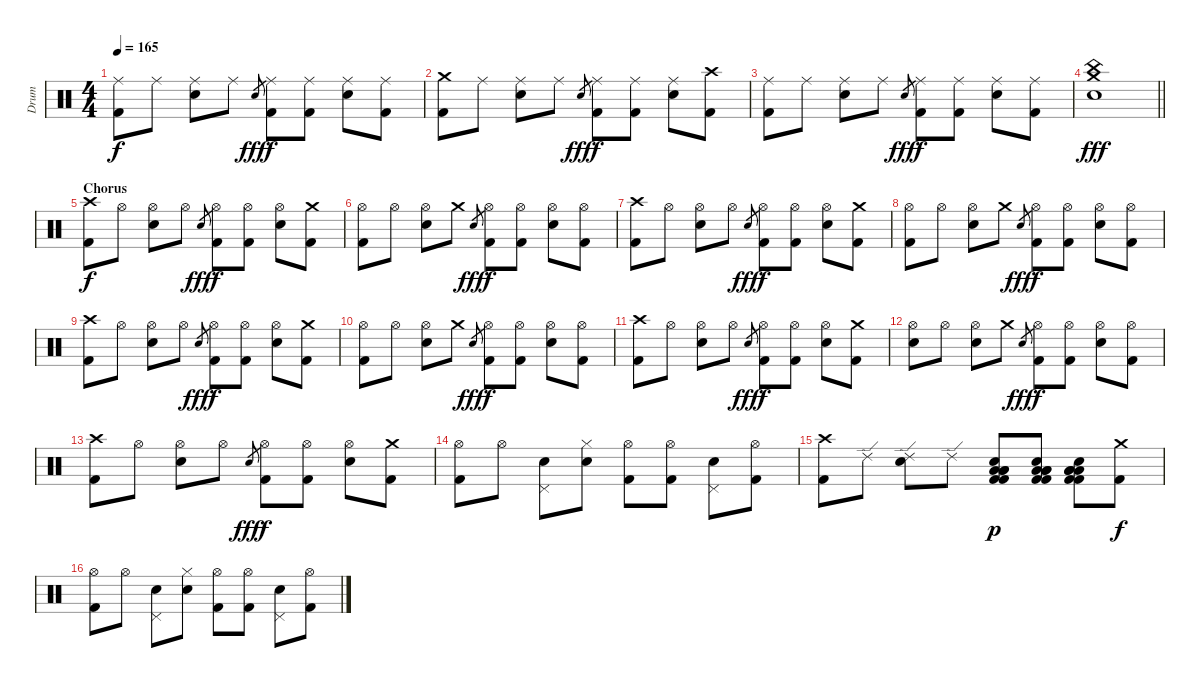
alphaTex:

\track ("Drum" "Drum") {instrument percussion}
\staff {score}
\articulation defaults
\ts (4 4)
\tempo 165
\clef neutral
\ks c
("Ride (middle)" "Kick (hit) 2").8{dy f} "Ride (middle)".8 ("Ride (middle)" "Electric Snare (hit)").8 "Ride (middle)".8 "Electric Snare (hit)".8{gr dy fff} ("Ride (middle)" "Kick (hit) 2").8{dy f} ("Ride (middle)" "Kick (hit) 2").8 ("Ride (middle)" "Electric Snare (hit)").8 ("Ride (middle)" "Kick (hit) 2").8 |
("Crash medium (hit)" "Kick (hit) 2").8 "Ride (middle)".8 ("Ride (middle)" "Electric Snare (hit)").8 "Ride (middle)".8 "Electric Snare (hit)".8{gr dy fff} ("Ride (middle)" "Kick (hit) 2").8{dy f} ("Ride (middle)" "Kick (hit) 2").8 ("Ride (middle)" "Electric Snare (hit)").8 ("Crash high (hit)" "Kick (hit) 2").8 |
("Ride (middle)" "Kick (hit) 2").8 "Ride (middle)".8 ("Ride (middle)" "Electric Snare (hit)").8 "Ride (middle)".8 "Electric Snare (hit)".8{gr dy fff} ("Ride (middle)" "Kick (hit) 2").8{dy f} ("Ride (middle)" "Kick (hit) 2").8 ("Ride (middle)" "Electric Snare (hit)").8 ("Ride (middle)" "Kick (hit) 2").8 |
\barLineRight lightlight
("Crash medium (hit)" "China (hit)" "Electric Snare (hit)").1{dy fff} |
\section ("" "Chorus")
("Crash high (hit)" "Kick (hit) 2").8{dy f} "Hi-Hat (open)".8 ("Hi-Hat (open)" "Electric Snare (hit)").8 "Hi-Hat (open)".8 "Electric Snare (hit)".8{gr dy fff} ("Hi-Hat (open)" "Kick (hit) 2").8{dy f} ("Hi-Hat (open)" "Kick (hit) 2").8 ("Hi-Hat (open)" "Electric Snare (hit)").8 ("Crash medium (hit)" "Kick (hit) 2").8 |
("Hi-Hat (open)" "Kick (hit) 2").8 "Hi-Hat (open)".8 ("Hi-Hat (open)" "Electric Snare (hit)").8 "Crash medium (hit)".8 "Electric Snare (hit)".8{gr dy fff} ("Hi-Hat (open)" "Kick (hit) 2").8{dy f} ("Hi-Hat (open)" "Kick (hit) 2").8 ("Hi-Hat (open)" "Electric Snare (hit)").8 ("Hi-Hat (open)" "Kick (hit) 2").8 |
("Crash high (hit)" "Kick (hit) 2").8 "Hi-Hat (open)".8 ("Hi-Hat (open)" "Electric Snare (hit)").8 "Hi-Hat (open)".8 "Electric Snare (hit)".8{gr dy fff} ("Hi-Hat (open)" "Kick (hit) 2").8{dy f} ("Hi-Hat (open)" "Kick (hit) 2").8 ("Hi-Hat (open)" "Electric Snare (hit)").8 ("Crash medium (hit)" "Kick (hit) 2").8 |
("Hi-Hat (open)" "Kick (hit) 2").8 "Hi-Hat (open)".8 ("Hi-Hat (open)" "Electric Snare (hit)").8 "Crash medium (hit)".8 "Electric Snare (hit)".8{gr dy fff} ("Hi-Hat (open)" "Kick (hit) 2").8{dy f} ("Hi-Hat (open)" "Kick (hit) 2").8 ("Hi-Hat (open)" "Electric Snare (hit)").8 ("Hi-Hat (open)" "Kick (hit) 2").8 |
("Crash high (hit)" "Kick (hit) 2").8 "Hi-Hat (open)".8 ("Hi-Hat (open)" "Electric Snare (hit)").8 "Hi-Hat (open)".8 "Electric Snare (hit)".8{gr dy fff} ("Hi-Hat (open)" "Kick (hit) 2").8{dy f} ("Hi-Hat (open)" "Kick (hit) 2").8 ("Hi-Hat (open)" "Electric Snare (hit)").8 ("Crash medium (hit)" "Kick (hit) 2").8 |
("Hi-Hat (open)" "Kick (hit) 2").8 "Hi-Hat (open)".8 ("Hi-Hat (open)" "Electric Snare (hit)").8 "Crash medium (hit)".8 "Electric Snare (hit)".8{gr dy fff} ("Hi-Hat (open)" "Kick (hit) 2").8{dy f} ("Hi-Hat (open)" "Kick (hit) 2").8 ("Hi-Hat (open)" "Electric Snare (hit)").8 ("Hi-Hat (open)" "Kick (hit) 2").8 |
("Crash high (hit)" "Kick (hit) 2").8 "Hi-Hat (open)".8 ("Hi-Hat (open)" "Electric Snare (hit)").8 "Hi-Hat (open)".8 "Electric Snare (hit)".8{gr dy fff} ("Hi-Hat (open)" "Kick (hit) 2").8{dy f} ("Hi-Hat (open)" "Kick (hit) 2").8 ("Hi-Hat (open)" "Electric Snare (hit)").8 ("Crash medium (hit)" "Kick (hit) 2").8 |
("Hi-Hat (open)" "Snare (hit)").8 "Hi-Hat (open)".8 ("Hi-Hat (open)" "Electric Snare (hit)").8 "Crash medium (hit)".8 "Electric Snare (hit)".8{gr dy fff} ("Hi-Hat (open)" "Kick (hit) 2").8{dy f} ("Hi-Hat (open)" "Kick (hit) 2").8 ("Hi-Hat (open)" "Electric Snare (hit)").8 ("Hi-Hat (open)" "Kick (hit) 2").8 |
("Crash high (hit)" "Kick (hit) 2").8 "Hi-Hat (open)".8 ("Hi-Hat (open)" "Electric Snare (hit)").8 "Hi-Hat (open)".8 "Electric Snare (hit)".8{gr dy fff} ("Hi-Hat (open)" "Kick (hit) 2").8{dy f} ("Hi-Hat (open)" "Kick (hit) 2").8 ("Hi-Hat (open)" "Electric Snare (hit)").8 ("Crash medium (hit)" "Kick (hit) 2").8 |
("Hi-Hat (open)" "Kick (hit) 2").8 "Hi-Hat (open)".8 ("Pedal Hi-Hat (hit)" "Electric Snare (hit)").8 ("Hi-Hat (closed)" "Electric Snare (hit)").8 ("Hi-Hat (open)" "Kick (hit) 2").8 ("Hi-Hat (open)" "Kick (hit) 2").8 ("Pedal Hi-Hat (hit)" "Electric Snare (hit)").8 ("Hi-Hat (open)" "Kick (hit) 2").8 |
("Crash high (hit)" "Kick (hit) 2").8 "Ride (edge) 2".8 ("Ride (edge) 2" "Electric Snare (hit)").8 "Ride (edge) 2".8 ("Low Tom (hit)" "Low Floor Tom (hit)" "Low Floor Tom (hit)" "Kick (hit) 2" "Snare (hit) 2" "Kick (hit) 2").8{dy p} ("Low Tom (hit)" "Low Floor Tom (hit)" "Low Floor Tom (hit)" "Kick (hit) 2" "Snare (hit) 2" "Kick (hit) 2").8 ("Low Tom (hit)" "Low Floor Tom (hit)" "Low Floor Tom (hit)" "Kick (hit) 2" "Snare (hit) 2" "Kick (hit) 2").8 ("Crash medium (hit)" "Kick (hit) 2").8{dy f} |
("Hi-Hat (open)" "Kick (hit) 2").8 "Hi-Hat (open)".8 ("Pedal Hi-Hat (hit)" "Electric Snare (hit)").8 ("Hi-Hat (closed)" "Electric Snare (hit)").8 ("Hi-Hat (open)" "Kick (hit) 2").8 ("Hi-Hat (open)" "Kick (hit) 2").8 ("Pedal Hi-Hat (hit)" "Electric Snare (hit)").8 ("Hi-Hat (open)" "Kick (hit) 2").8
